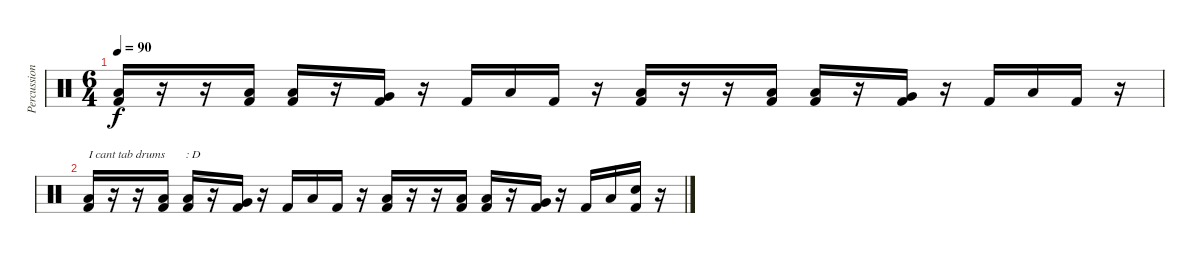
\track ("Percussion" "Percussion") {instrument percussion}
\staff {score}
\articulation defaults
\ts (6 4)
\tempo 90
\clef neutral
\ks c
("Low Floor Tom (hit)" "Kick (hit) 2").16{dy f} r.16 r.16 ("Low Floor Tom (hit)" "Kick (hit) 2").16 ("Low Tom (hit)" "Kick (hit) 2").16 r.16 ("Very Low Tom (hit)" "Kick (hit) 2").16 r.16 "Kick (hit) 2".16 "Low Floor Tom (hit)".16 "Kick (hit) 2".16 r.16 ("Low Floor Tom (hit)" "Kick (hit) 2").16 r.16 r.16 ("Low Floor Tom (hit)" "Kick (hit) 2").16 ("Low Tom (hit)" "Kick (hit) 2").16 r.16 ("Very Low Tom (hit)" "Kick (hit) 2").16 r.16 "Kick (hit) 2".16 "Low Floor Tom (hit)".16 "Kick (hit) 2".16 r.16 |
("Low Floor Tom (hit)" "Kick (hit) 2").16{txt "I cant tab drums       : D"} r.16 r.16 ("Low Floor Tom (hit)" "Kick (hit) 2").16 ("Low Tom (hit)" "Kick (hit) 2").16 r.16 ("Very Low Tom (hit)" "Kick (hit) 2").16 r.16 "Kick (hit) 2".16 "Low Floor Tom (hit)".16 "Kick (hit) 2".16 r.16 ("Low Floor Tom (hit)" "Kick (hit) 2").16 r.16 r.16 ("Low Floor Tom (hit)" "Kick (hit) 2").16 ("Low Tom (hit)" "Kick (hit) 2").16 r.16 ("Very Low Tom (hit)" "Kick (hit) 2").16 r.16 "Kick (hit) 2".16 "Low Floor Tom (hit)".16 ("Electric Snare (hit)" "Kick (hit) 2").16 r.16
